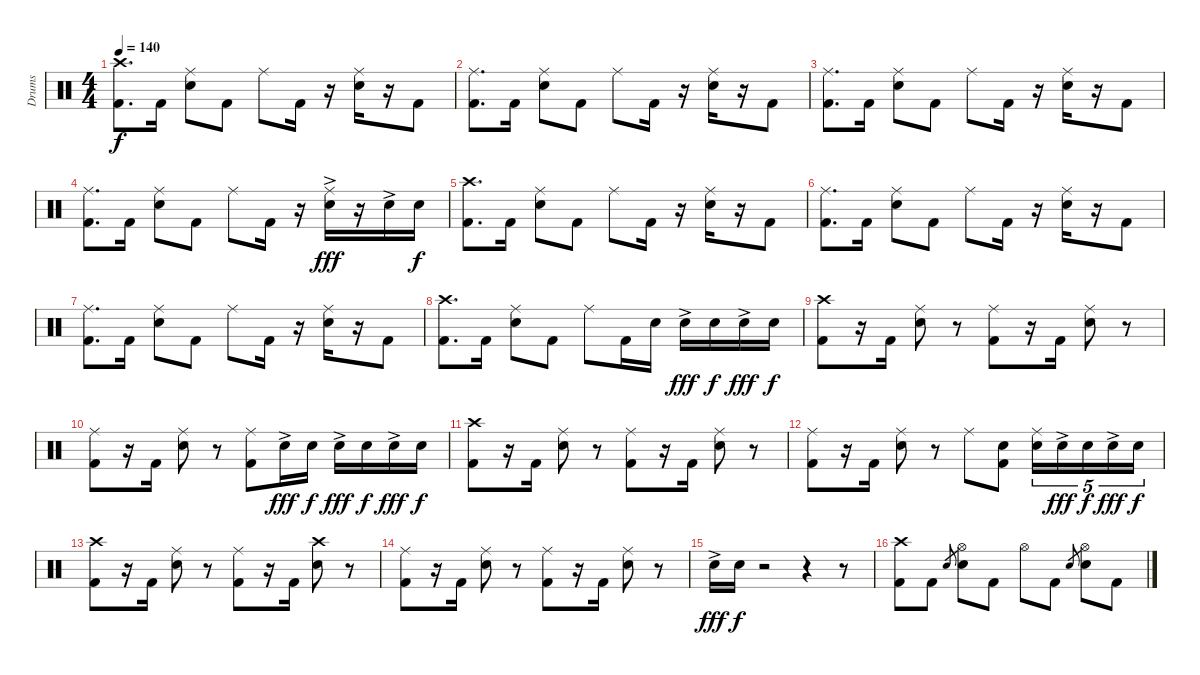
\track ("Drums" "Drums") {instrument percussion}
\staff {score}
\articulation defaults
\ts (4 4)
\tempo 140
\clef neutral
\ks c
("Crash high (hit)" "Kick (hit) 2").8{d dy f} "Kick (hit) 2".16 ("Ride (middle)" "Snare (hit) 2").8 "Kick (hit) 2".8 "Ride (middle)".8 "Kick (hit) 2".16 r.16 ("Ride (middle)" "Snare (hit) 2").16 r.16 "Kick (hit) 2".8 |
("Ride (middle)" "Kick (hit) 2").8{d} "Kick (hit) 2".16 ("Ride (middle)" "Snare (hit) 2").8 "Kick (hit) 2".8 "Ride (middle)".8 "Kick (hit) 2".16 r.16 ("Ride (middle)" "Snare (hit) 2").16 r.16 "Kick (hit) 2".8 |
("Ride (middle)" "Kick (hit) 2").8{d} "Kick (hit) 2".16 ("Ride (middle)" "Snare (hit) 2").8 "Kick (hit) 2".8 "Ride (middle)".8 "Kick (hit) 2".16 r.16 ("Ride (middle)" "Snare (hit) 2").16 r.16 "Kick (hit) 2".8 |
("Ride (middle)" "Kick (hit) 2").8{d} "Kick (hit) 2".16 ("Ride (middle)" "Snare (hit) 2").8 "Kick (hit) 2".8 "Ride (middle)".8 "Kick (hit) 2".16 r.16 ("Ride (middle)" "Snare (hit) 2"{ac}).16{dy fff} r.16 "Snare (hit) 2"{ac}.16 "Snare (hit) 2".16{dy f} |
("Crash high (hit)" "Kick (hit) 2").8{d} "Kick (hit) 2".16 ("Ride (middle)" "Snare (hit) 2").8 "Kick (hit) 2".8 "Ride (middle)".8 "Kick (hit) 2".16 r.16 ("Ride (middle)" "Snare (hit) 2").16 r.16 "Kick (hit) 2".8 |
("Ride (middle)" "Kick (hit) 2").8{d} "Kick (hit) 2".16 ("Ride (middle)" "Snare (hit) 2").8 "Kick (hit) 2".8 "Ride (middle)".8 "Kick (hit) 2".16 r.16 ("Ride (middle)" "Snare (hit) 2").16 r.16 "Kick (hit) 2".8 |
("Ride (middle)" "Kick (hit) 2").8{d} "Kick (hit) 2".16 ("Ride (middle)" "Snare (hit) 2").8 "Kick (hit) 2".8 "Ride (middle)".8 "Kick (hit) 2".16 r.16 ("Ride (middle)" "Snare (hit) 2").16 r.16 "Kick (hit) 2".8 |
("Crash high (hit)" "Kick (hit) 2").8{d} "Kick (hit) 2".16 ("Ride (middle)" "Snare (hit) 2").8 "Kick (hit) 2".8 "Ride (middle)".8 "Kick (hit) 2".16 "Snare (hit) 2".16 "Snare (hit) 2"{ac}.16{dy fff} "Snare (hit) 2".16{dy f} "Snare (hit) 2"{ac}.16{dy fff} "Snare (hit) 2".16{dy f} |
("Crash high (hit)" "Kick (hit) 2").8 r.16 "Kick (hit) 2".16 ("Ride (middle)" "Snare (hit) 2").8 r.8 ("Ride (middle)" "Kick (hit) 2").8 r.16 "Kick (hit) 2".16 ("Ride (middle)" "Snare (hit) 2").8 r.8 |
("Ride (middle)" "Kick (hit) 2").8 r.16 "Kick (hit) 2".16 ("Ride (middle)" "Snare (hit) 2").8 r.8 ("Ride (middle)" "Kick (hit) 2").8 "Snare (hit) 2"{ac}.16{dy fff} "Snare (hit) 2".16{dy f} "Snare (hit) 2"{ac}.16{dy fff} "Snare (hit) 2".16{dy f} "Snare (hit) 2"{ac}.16{dy fff} "Snare (hit) 2".16{dy f} |
("Crash high (hit)" "Kick (hit) 2").8 r.16 "Kick (hit) 2".16 ("Ride (middle)" "Snare (hit) 2").8 r.8 ("Ride (middle)" "Kick (hit) 2").8 r.16 "Kick (hit) 2".16 ("Ride (middle)" "Snare (hit) 2").8 r.8 |
("Ride (middle)" "Kick (hit) 2").8 r.16 "Kick (hit) 2".16 ("Ride (middle)" "Snare (hit) 2").8 r.8 "Ride (middle)".8 ("Snare (hit) 2" "Kick (hit) 2").8 ("Ride (middle)" "Snare (hit) 2").16{tu (5 4)} "Snare (hit) 2"{ac}.16{tu (5 4) dy fff} "Snare (hit) 2".16{tu (5 4) dy f} "Snare (hit) 2"{ac}.16{tu (5 4) dy fff} "Snare (hit) 2".16{tu (5 4) dy f} |
("Crash high (hit)" "Kick (hit) 2").8 r.16 "Kick (hit) 2".16 ("Ride (middle)" "Snare (hit) 2").8 r.8 ("Ride (middle)" "Kick (hit) 2").8 r.16 "Kick (hit) 2".16 ("Crash high (hit)" "Snare (hit) 2").8 r.8 |
("Ride (middle)" "Kick (hit) 2").8 r.16 "Kick (hit) 2".16 ("Ride (middle)" "Snare (hit) 2").8 r.8 ("Ride (middle)" "Kick (hit) 2").8 r.16 "Kick (hit) 2".16 ("Ride (middle)" "Snare (hit) 2").8 r.8 |
"Snare (hit) 2"{ac}.16{dy fff} "Snare (hit) 2".16{dy f} r.2 r.4 r.8 |
("Crash high (hit)" "Kick (hit) 2").8 "Kick (hit) 2".8 "Snare (hit) 2".8{gr} ("Hi-Hat (open)" "Snare (hit) 2").8 "Kick (hit) 2".8 "Hi-Hat (open)".8 "Kick (hit) 2".8 "Snare (hit) 2".8{gr} ("Hi-Hat (open)" "Snare (hit) 2").8 "Kick (hit) 2".8
